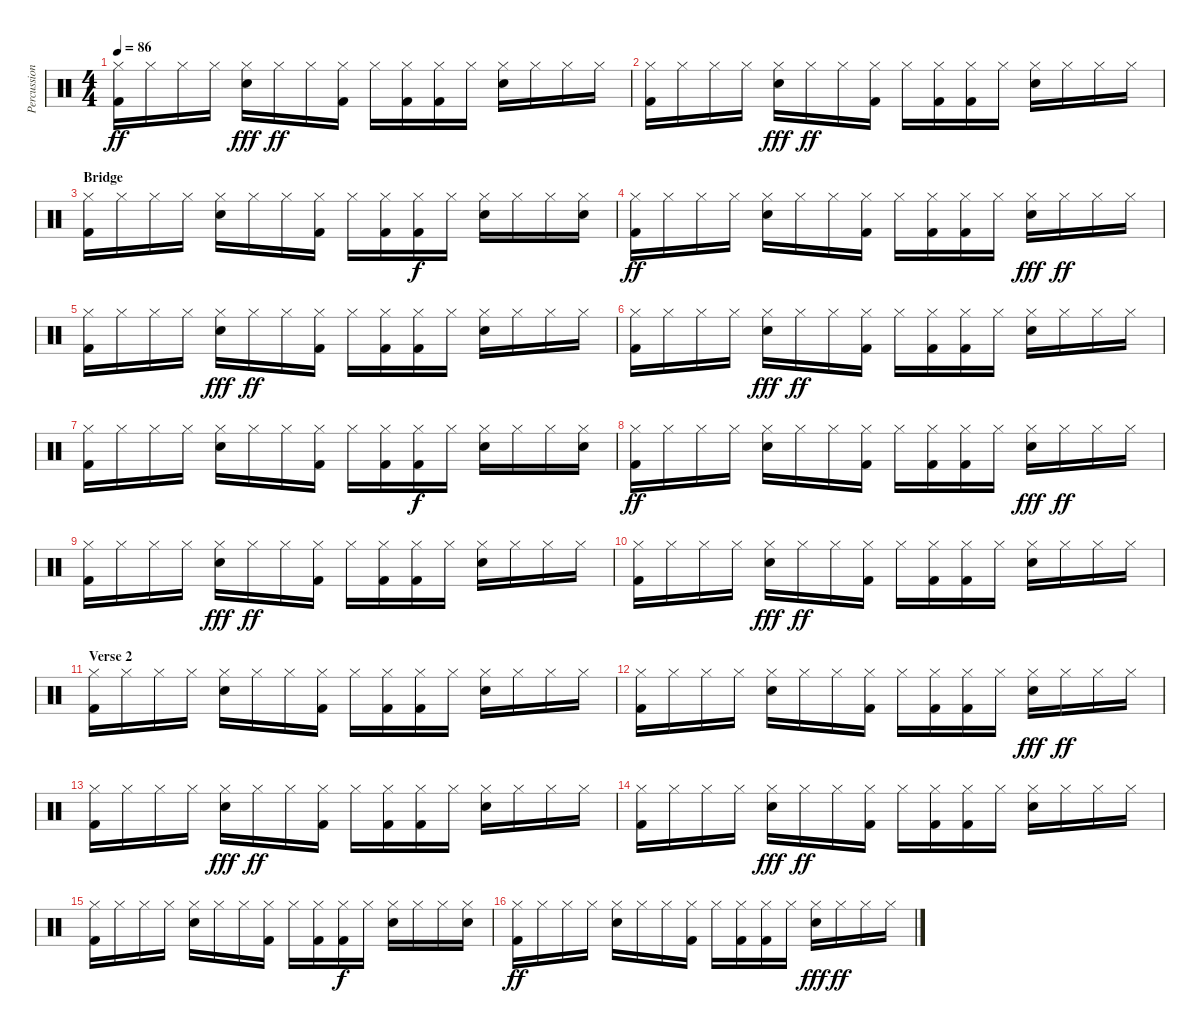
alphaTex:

\track ("Percussion" "Percussion") {instrument percussion}
\staff {score}
\articulation defaults
\ts (4 4)
\tempo 86
\clef neutral
\ks c
("Hi-Hat (closed)" "Kick (hit) 2").16{dy ff} "Hi-Hat (closed)".16 "Hi-Hat (closed)".16 "Hi-Hat (closed)".16 ("Snare (hit) 2" "Hi-Hat (closed)").16{dy fff} "Hi-Hat (closed)".16{dy ff} "Hi-Hat (closed)".16 ("Hi-Hat (closed)" "Kick (hit) 2").16 "Hi-Hat (closed)".16 ("Kick (hit) 2" "Hi-Hat (closed)").16 ("Kick (hit) 2" "Hi-Hat (closed)").16 "Hi-Hat (closed)".16 ("Hi-Hat (closed)" "Snare (hit) 2").16 "Hi-Hat (closed)".16 "Hi-Hat (closed)".16 "Hi-Hat (closed)".16 |
("Hi-Hat (closed)" "Kick (hit) 2").16 "Hi-Hat (closed)".16 "Hi-Hat (closed)".16 "Hi-Hat (closed)".16 ("Snare (hit) 2" "Hi-Hat (closed)").16{dy fff} "Hi-Hat (closed)".16{dy ff} "Hi-Hat (closed)".16 ("Hi-Hat (closed)" "Kick (hit) 2").16 "Hi-Hat (closed)".16 ("Kick (hit) 2" "Hi-Hat (closed)").16 ("Kick (hit) 2" "Hi-Hat (closed)").16 "Hi-Hat (closed)".16 ("Hi-Hat (closed)" "Snare (hit) 2").16 "Hi-Hat (closed)".16 "Hi-Hat (closed)".16 "Hi-Hat (closed)".16 |
\section ("" "Bridge")
("Hi-Hat (closed)" "Kick (hit) 2").16 "Hi-Hat (closed)".16 "Hi-Hat (closed)".16 "Hi-Hat (closed)".16 ("Hi-Hat (closed)" "Snare (hit) 2").16 "Hi-Hat (closed)".16 "Hi-Hat (closed)".16 ("Hi-Hat (closed)" "Kick (hit) 2").16 "Hi-Hat (closed)".16 ("Hi-Hat (closed)" "Kick (hit) 2").16 ("Hi-Hat (closed)" "Kick (hit) 2").16{dy f} "Hi-Hat (closed)".16 ("Hi-Hat (closed)" "Snare (hit) 2").16 "Hi-Hat (closed)".16 "Hi-Hat (closed)".16 ("Hi-Hat (closed)" "Snare (hit) 2").16 |
("Hi-Hat (closed)" "Kick (hit) 2").16{dy ff} "Hi-Hat (closed)".16 "Hi-Hat (closed)".16 "Hi-Hat (closed)".16 ("Hi-Hat (closed)" "Snare (hit) 2").16 "Hi-Hat (closed)".16 "Hi-Hat (closed)".16 ("Hi-Hat (closed)" "Kick (hit) 2").16 "Hi-Hat (closed)".16 ("Hi-Hat (closed)" "Kick (hit) 2").16 ("Hi-Hat (closed)" "Kick (hit) 2").16 "Hi-Hat (closed)".16 ("Hi-Hat (closed)" "Snare (hit) 2").16{dy fff} "Hi-Hat (closed)".16{dy ff} "Hi-Hat (closed)".16 "Hi-Hat (closed)".16 |
("Hi-Hat (closed)" "Kick (hit) 2").16 "Hi-Hat (closed)".16 "Hi-Hat (closed)".16 "Hi-Hat (closed)".16 ("Snare (hit) 2" "Hi-Hat (closed)").16{dy fff} "Hi-Hat (closed)".16{dy ff} "Hi-Hat (closed)".16 ("Hi-Hat (closed)" "Kick (hit) 2").16 "Hi-Hat (closed)".16 ("Kick (hit) 2" "Hi-Hat (closed)").16 ("Kick (hit) 2" "Hi-Hat (closed)").16 "Hi-Hat (closed)".16 ("Hi-Hat (closed)" "Snare (hit) 2").16 "Hi-Hat (closed)".16 "Hi-Hat (closed)".16 "Hi-Hat (closed)".16 |
("Hi-Hat (closed)" "Kick (hit) 2").16 "Hi-Hat (closed)".16 "Hi-Hat (closed)".16 "Hi-Hat (closed)".16 ("Snare (hit) 2" "Hi-Hat (closed)").16{dy fff} "Hi-Hat (closed)".16{dy ff} "Hi-Hat (closed)".16 ("Hi-Hat (closed)" "Kick (hit) 2").16 "Hi-Hat (closed)".16 ("Kick (hit) 2" "Hi-Hat (closed)").16 ("Kick (hit) 2" "Hi-Hat (closed)").16 "Hi-Hat (closed)".16 ("Hi-Hat (closed)" "Snare (hit) 2").16 "Hi-Hat (closed)".16 "Hi-Hat (closed)".16 "Hi-Hat (closed)".16 |
("Hi-Hat (closed)" "Kick (hit) 2").16 "Hi-Hat (closed)".16 "Hi-Hat (closed)".16 "Hi-Hat (closed)".16 ("Hi-Hat (closed)" "Snare (hit) 2").16 "Hi-Hat (closed)".16 "Hi-Hat (closed)".16 ("Hi-Hat (closed)" "Kick (hit) 2").16 "Hi-Hat (closed)".16 ("Hi-Hat (closed)" "Kick (hit) 2").16 ("Hi-Hat (closed)" "Kick (hit) 2").16{dy f} "Hi-Hat (closed)".16 ("Hi-Hat (closed)" "Snare (hit) 2").16 "Hi-Hat (closed)".16 "Hi-Hat (closed)".16 ("Hi-Hat (closed)" "Snare (hit) 2").16 |
("Hi-Hat (closed)" "Kick (hit) 2").16{dy ff} "Hi-Hat (closed)".16 "Hi-Hat (closed)".16 "Hi-Hat (closed)".16 ("Hi-Hat (closed)" "Snare (hit) 2").16 "Hi-Hat (closed)".16 "Hi-Hat (closed)".16 ("Hi-Hat (closed)" "Kick (hit) 2").16 "Hi-Hat (closed)".16 ("Hi-Hat (closed)" "Kick (hit) 2").16 ("Hi-Hat (closed)" "Kick (hit) 2").16 "Hi-Hat (closed)".16 ("Hi-Hat (closed)" "Snare (hit) 2").16{dy fff} "Hi-Hat (closed)".16{dy ff} "Hi-Hat (closed)".16 "Hi-Hat (closed)".16 |
("Hi-Hat (closed)" "Kick (hit) 2").16 "Hi-Hat (closed)".16 "Hi-Hat (closed)".16 "Hi-Hat (closed)".16 ("Snare (hit) 2" "Hi-Hat (closed)").16{dy fff} "Hi-Hat (closed)".16{dy ff} "Hi-Hat (closed)".16 ("Hi-Hat (closed)" "Kick (hit) 2").16 "Hi-Hat (closed)".16 ("Kick (hit) 2" "Hi-Hat (closed)").16 ("Kick (hit) 2" "Hi-Hat (closed)").16 "Hi-Hat (closed)".16 ("Hi-Hat (closed)" "Snare (hit) 2").16 "Hi-Hat (closed)".16 "Hi-Hat (closed)".16 "Hi-Hat (closed)".16 |
("Hi-Hat (closed)" "Kick (hit) 2").16 "Hi-Hat (closed)".16 "Hi-Hat (closed)".16 "Hi-Hat (closed)".16 ("Snare (hit) 2" "Hi-Hat (closed)").16{dy fff} "Hi-Hat (closed)".16{dy ff} "Hi-Hat (closed)".16 ("Hi-Hat (closed)" "Kick (hit) 2").16 "Hi-Hat (closed)".16 ("Kick (hit) 2" "Hi-Hat (closed)").16 ("Kick (hit) 2" "Hi-Hat (closed)").16 "Hi-Hat (closed)".16 ("Hi-Hat (closed)" "Snare (hit) 2").16 "Hi-Hat (closed)".16 "Hi-Hat (closed)".16 "Hi-Hat (closed)".16 |
\section ("" "Verse 2")
("Hi-Hat (closed)" "Kick (hit) 2").16 "Hi-Hat (closed)".16 "Hi-Hat (closed)".16 "Hi-Hat (closed)".16 ("Hi-Hat (closed)" "Snare (hit) 2").16 "Hi-Hat (closed)".16 "Hi-Hat (closed)".16 ("Hi-Hat (closed)" "Kick (hit) 2").16 "Hi-Hat (closed)".16 ("Hi-Hat (closed)" "Kick (hit) 2").16 ("Hi-Hat (closed)" "Kick (hit) 2").16 "Hi-Hat (closed)".16 ("Hi-Hat (closed)" "Snare (hit) 2").16 "Hi-Hat (closed)".16 "Hi-Hat (closed)".16 "Hi-Hat (closed)".16 |
("Hi-Hat (closed)" "Kick (hit) 2").16 "Hi-Hat (closed)".16 "Hi-Hat (closed)".16 "Hi-Hat (closed)".16 ("Hi-Hat (closed)" "Snare (hit) 2").16 "Hi-Hat (closed)".16 "Hi-Hat (closed)".16 ("Hi-Hat (closed)" "Kick (hit) 2").16 "Hi-Hat (closed)".16 ("Hi-Hat (closed)" "Kick (hit) 2").16 ("Hi-Hat (closed)" "Kick (hit) 2").16 "Hi-Hat (closed)".16 ("Hi-Hat (closed)" "Snare (hit) 2").16{dy fff} "Hi-Hat (closed)".16{dy ff} "Hi-Hat (closed)".16 "Hi-Hat (closed)".16 |
("Hi-Hat (closed)" "Kick (hit) 2").16 "Hi-Hat (closed)".16 "Hi-Hat (closed)".16 "Hi-Hat (closed)".16 ("Snare (hit) 2" "Hi-Hat (closed)").16{dy fff} "Hi-Hat (closed)".16{dy ff} "Hi-Hat (closed)".16 ("Hi-Hat (closed)" "Kick (hit) 2").16 "Hi-Hat (closed)".16 ("Kick (hit) 2" "Hi-Hat (closed)").16 ("Kick (hit) 2" "Hi-Hat (closed)").16 "Hi-Hat (closed)".16 ("Hi-Hat (closed)" "Snare (hit) 2").16 "Hi-Hat (closed)".16 "Hi-Hat (closed)".16 "Hi-Hat (closed)".16 |
("Hi-Hat (closed)" "Kick (hit) 2").16 "Hi-Hat (closed)".16 "Hi-Hat (closed)".16 "Hi-Hat (closed)".16 ("Snare (hit) 2" "Hi-Hat (closed)").16{dy fff} "Hi-Hat (closed)".16{dy ff} "Hi-Hat (closed)".16 ("Hi-Hat (closed)" "Kick (hit) 2").16 "Hi-Hat (closed)".16 ("Kick (hit) 2" "Hi-Hat (closed)").16 ("Kick (hit) 2" "Hi-Hat (closed)").16 "Hi-Hat (closed)".16 ("Hi-Hat (closed)" "Snare (hit) 2").16 "Hi-Hat (closed)".16 "Hi-Hat (closed)".16 "Hi-Hat (closed)".16 |
("Hi-Hat (closed)" "Kick (hit) 2").16 "Hi-Hat (closed)".16 "Hi-Hat (closed)".16 "Hi-Hat (closed)".16 ("Hi-Hat (closed)" "Snare (hit) 2").16 "Hi-Hat (closed)".16 "Hi-Hat (closed)".16 ("Hi-Hat (closed)" "Kick (hit) 2").16 "Hi-Hat (closed)".16 ("Hi-Hat (closed)" "Kick (hit) 2").16 ("Hi-Hat (closed)" "Kick (hit) 2").16{dy f} "Hi-Hat (closed)".16 ("Hi-Hat (closed)" "Snare (hit) 2").16 "Hi-Hat (closed)".16 "Hi-Hat (closed)".16 ("Hi-Hat (closed)" "Snare (hit) 2").16 |
("Hi-Hat (closed)" "Kick (hit) 2").16{dy ff} "Hi-Hat (closed)".16 "Hi-Hat (closed)".16 "Hi-Hat (closed)".16 ("Hi-Hat (closed)" "Snare (hit) 2").16 "Hi-Hat (closed)".16 "Hi-Hat (closed)".16 ("Hi-Hat (closed)" "Kick (hit) 2").16 "Hi-Hat (closed)".16 ("Hi-Hat (closed)" "Kick (hit) 2").16 ("Hi-Hat (closed)" "Kick (hit) 2").16 "Hi-Hat (closed)".16 ("Hi-Hat (closed)" "Snare (hit) 2").16{dy fff} "Hi-Hat (closed)".16{dy ff} "Hi-Hat (closed)".16 "Hi-Hat (closed)".16
